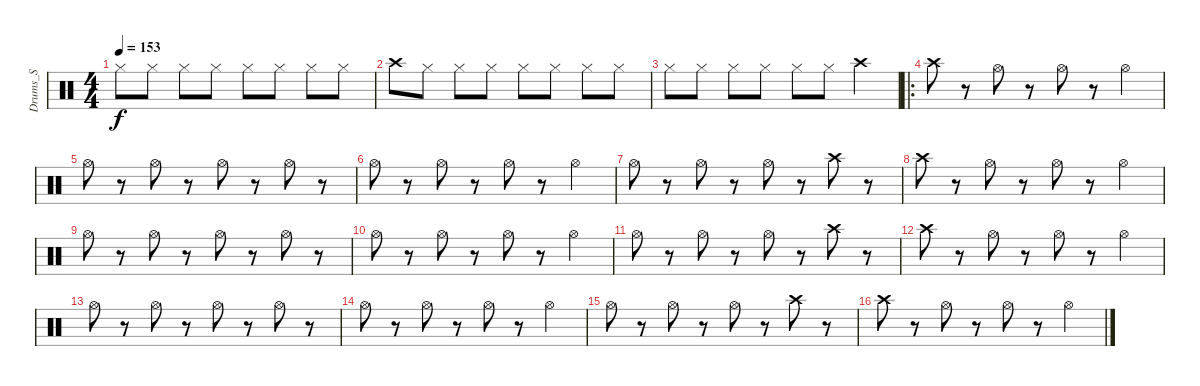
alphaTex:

\track ("Drums_S" "Drums_S") {instrument percussion}
\staff {score}
\articulation defaults
\ts (4 4)
\tempo 153
\clef neutral
\ks c "Hi-Hat (closed)".8{dy f} "Hi-Hat (closed)".8 "Hi-Hat (closed)".8 "Hi-Hat (closed)".8 "Hi-Hat (closed)".8 "Hi-Hat (closed)".8 "Hi-Hat (closed)".8 "Hi-Hat (closed)".8
|
"Crash high (hit)".8 "Hi-Hat (closed)".8 "Hi-Hat (closed)".8 "Hi-Hat (closed)".8 "Hi-Hat (closed)".8 "Hi-Hat (closed)".8 "Hi-Hat (closed)".8 "Hi-Hat (closed)".8 |
"Hi-Hat (closed)".8 "Hi-Hat (closed)".8 "Hi-Hat (closed)".8 "Hi-Hat (closed)".8 "Hi-Hat (closed)".8 "Hi-Hat (closed)".8 "Crash high (hit)".4 |
\ro "Crash high (hit)".8
r.8 "Hi-Hat (open)".8 r.8 "Hi-Hat (open)".8 r.8 "Hi-Hat (open)".4 |
"Hi-Hat (open)".8 r.8 "Hi-Hat (open)".8 r.8 "Hi-Hat (open)".8 r.8 "Hi-Hat (open)".8 r.8 |
"Hi-Hat (open)".8 r.8 "Hi-Hat (open)".8 r.8 "Hi-Hat (open)".8 r.8 "Hi-Hat (open)".4 |
"Hi-Hat (open)".8 r.8 "Hi-Hat (open)".8 r.8 "Hi-Hat (open)".8 r.8 "Crash high (hit)".8 r.8 |
"Crash high (hit)".8 r.8 "Hi-Hat (open)".8 r.8 "Hi-Hat (open)".8 r.8 "Hi-Hat (open)".4 |
"Hi-Hat (open)".8 r.8 "Hi-Hat (open)".8 r.8 "Hi-Hat (open)".8 r.8 "Hi-Hat (open)".8 r.8 |
"Hi-Hat (open)".8 r.8 "Hi-Hat (open)".8 r.8 "Hi-Hat (open)".8 r.8 "Hi-Hat (open)".4 |
"Hi-Hat (open)".8 r.8 "Hi-Hat (open)".8 r.8 "Hi-Hat (open)".8 r.8 "Crash high (hit)".8 r.8 |
"Crash high (hit)".8 r.8 "Hi-Hat (open)".8 r.8 "Hi-Hat (open)".8 r.8 "Hi-Hat (open)".4 |
"Hi-Hat (open)".8 r.8 "Hi-Hat (open)".8 r.8 "Hi-Hat (open)".8 r.8 "Hi-Hat (open)".8 r.8 |
"Hi-Hat (open)".8 r.8 "Hi-Hat (open)".8 r.8 "Hi-Hat (open)".8 r.8 "Hi-Hat (open)".4 |
"Hi-Hat (open)".8 r.8 "Hi-Hat (open)".8 r.8 "Hi-Hat (open)".8 r.8 "Crash high (hit)".8 r.8 |
"Crash high (hit)".8 r.8 "Hi-Hat (open)".8 r.8 "Hi-Hat (open)".8 r.8 "Hi-Hat (open)".4
